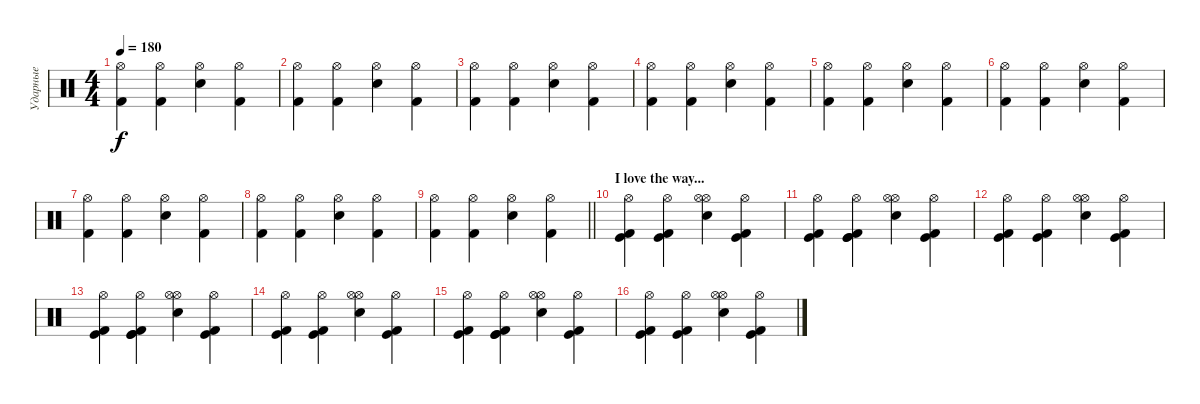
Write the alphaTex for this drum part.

\track ("Ударные" "Ударные") {instrument percussion}
\staff {score}
\articulation defaults
\ts (4 4)
\tempo 180
\clef neutral
\ks c
("Hi-Hat (open)" "Kick (hit) 2").4{dy f} ("Hi-Hat (open)" "Kick (hit) 2").4 ("Electric Snare (hit)" "Hi-Hat (open)").4 ("Hi-Hat (open)" "Kick (hit) 2").4 |
("Hi-Hat (open)" "Kick (hit) 2").4 ("Hi-Hat (open)" "Kick (hit) 2").4 ("Electric Snare (hit)" "Hi-Hat (open)").4 ("Hi-Hat (open)" "Kick (hit) 2").4 |
("Hi-Hat (open)" "Kick (hit) 2").4 ("Hi-Hat (open)" "Kick (hit) 2").4 ("Electric Snare (hit)" "Hi-Hat (open)").4 ("Hi-Hat (open)" "Kick (hit) 2").4 |
("Hi-Hat (open)" "Kick (hit) 2").4 ("Hi-Hat (open)" "Kick (hit) 2").4 ("Electric Snare (hit)" "Hi-Hat (open)").4 ("Hi-Hat (open)" "Kick (hit) 2").4 |
("Hi-Hat (open)" "Kick (hit) 2").4 ("Hi-Hat (open)" "Kick (hit) 2").4 ("Electric Snare (hit)" "Hi-Hat (open)").4 ("Hi-Hat (open)" "Kick (hit) 2").4 |
("Hi-Hat (open)" "Kick (hit) 2").4 ("Hi-Hat (open)" "Kick (hit) 2").4 ("Electric Snare (hit)" "Hi-Hat (open)").4 ("Hi-Hat (open)" "Kick (hit) 2").4 |
("Hi-Hat (open)" "Kick (hit) 2").4 ("Hi-Hat (open)" "Kick (hit) 2").4 ("Electric Snare (hit)" "Hi-Hat (open)").4 ("Hi-Hat (open)" "Kick (hit) 2").4 |
("Hi-Hat (open)" "Kick (hit) 2").4 ("Hi-Hat (open)" "Kick (hit) 2").4 ("Electric Snare (hit)" "Hi-Hat (open)").4 ("Hi-Hat (open)" "Kick (hit) 2").4 |
\barLineRight lightlight
("Hi-Hat (open)" "Kick (hit) 2").4 ("Hi-Hat (open)" "Kick (hit) 2").4 ("Electric Snare (hit)" "Hi-Hat (open)").4 ("Hi-Hat (open)" "Kick (hit) 2").4 |
\section ("" "I love the way...")
("Hi-Hat (open)" "Kick (hit) 2" "Kick (hit)").4 ("Hi-Hat (open)" "Kick (hit) 2" "Kick (hit)").4 ("Electric Snare (hit)" "Hi-Hat (open)" "Hi-Hat (open)").4 ("Hi-Hat (open)" "Kick (hit) 2" "Kick (hit)").4 |
("Hi-Hat (open)" "Kick (hit) 2" "Kick (hit)").4 ("Hi-Hat (open)" "Kick (hit) 2" "Kick (hit)" "Kick (hit)").4 ("Electric Snare (hit)" "Hi-Hat (open)" "Hi-Hat (open)").4 ("Hi-Hat (open)" "Kick (hit) 2" "Kick (hit)").4 |
("Hi-Hat (open)" "Kick (hit) 2" "Kick (hit)").4 ("Hi-Hat (open)" "Kick (hit) 2" "Kick (hit)").4 ("Electric Snare (hit)" "Hi-Hat (open)" "Hi-Hat (open)").4 ("Hi-Hat (open)" "Kick (hit) 2" "Kick (hit)").4 |
("Hi-Hat (open)" "Kick (hit) 2" "Kick (hit)").4 ("Hi-Hat (open)" "Kick (hit) 2" "Kick (hit)" "Kick (hit)").4 ("Electric Snare (hit)" "Hi-Hat (open)" "Hi-Hat (open)").4 ("Hi-Hat (open)" "Kick (hit) 2" "Kick (hit)").4 |
("Hi-Hat (open)" "Kick (hit) 2" "Kick (hit)").4 ("Hi-Hat (open)" "Kick (hit) 2" "Kick (hit)").4 ("Electric Snare (hit)" "Hi-Hat (open)" "Hi-Hat (open)").4 ("Hi-Hat (open)" "Kick (hit) 2" "Kick (hit)").4 |
("Hi-Hat (open)" "Kick (hit) 2" "Kick (hit)").4 ("Hi-Hat (open)" "Kick (hit) 2" "Kick (hit)" "Kick (hit)").4 ("Electric Snare (hit)" "Hi-Hat (open)" "Hi-Hat (open)").4 ("Hi-Hat (open)" "Kick (hit) 2" "Kick (hit)").4 |
("Hi-Hat (open)" "Kick (hit) 2" "Kick (hit)").4 ("Hi-Hat (open)" "Kick (hit) 2" "Kick (hit)").4 ("Electric Snare (hit)" "Hi-Hat (open)" "Hi-Hat (open)").4 ("Hi-Hat (open)" "Kick (hit) 2" "Kick (hit)").4
